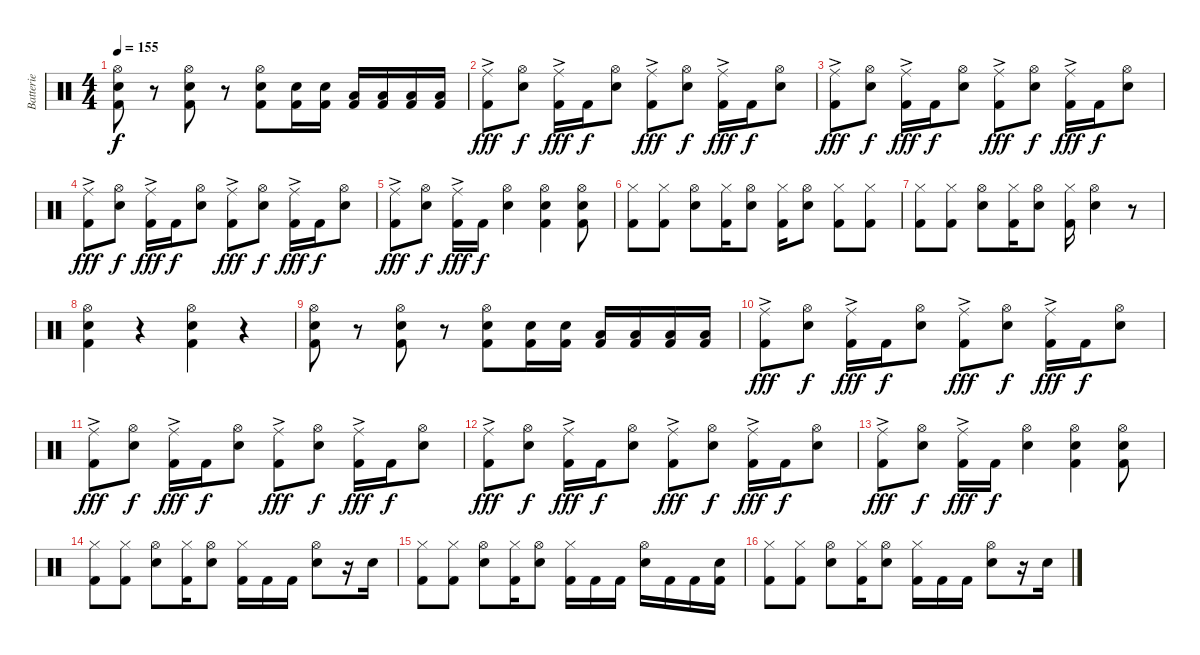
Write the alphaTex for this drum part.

\track ("Batterie" "Batterie") {instrument percussion}
\staff {score}
\articulation defaults
\ts (4 4)
\tempo 155
\clef neutral
\ks c
("Hi-Hat (open)" "Snare (hit) 2" "Kick (hit) 2").8{dy f} r.8 ("Hi-Hat (open)" "Snare (hit) 2" "Kick (hit) 2").8 r.8 ("Hi-Hat (open)" "Snare (hit) 2" "Kick (hit) 2").8 ("Snare (hit) 2" "Kick (hit) 2").16 ("Snare (hit) 2" "Kick (hit) 2").16 ("Low Tom (hit)" "Kick (hit) 2").16 ("Low Tom (hit)" "Kick (hit) 2").16 ("Low Floor Tom (hit)" "Kick (hit) 2").16 ("Low Floor Tom (hit)" "Kick (hit) 2").16 |
("Ride (middle)"{ac} "Kick (hit) 2").8{dy fff} ("Hi-Hat (open)" "Snare (hit) 2").8{dy f} ("Ride (middle)"{ac} "Kick (hit) 2").16{dy fff} "Kick (hit) 2".16{dy f} ("Hi-Hat (open)" "Snare (hit) 2").8 ("Ride (middle)"{ac} "Kick (hit) 2").8{dy fff} ("Hi-Hat (open)" "Snare (hit) 2").8{dy f} ("Ride (middle)"{ac} "Kick (hit) 2").16{dy fff} "Kick (hit) 2".16{dy f} ("Hi-Hat (open)" "Snare (hit) 2").8 |
("Ride (middle)"{ac} "Kick (hit) 2").8{dy fff} ("Hi-Hat (open)" "Snare (hit) 2").8{dy f} ("Ride (middle)"{ac} "Kick (hit) 2").16{dy fff} "Kick (hit) 2".16{dy f} ("Hi-Hat (open)" "Snare (hit) 2").8 ("Ride (middle)"{ac} "Kick (hit) 2").8{dy fff} ("Hi-Hat (open)" "Snare (hit) 2").8{dy f} ("Ride (middle)"{ac} "Kick (hit) 2").16{dy fff} "Kick (hit) 2".16{dy f} ("Hi-Hat (open)" "Snare (hit) 2").8 |
("Ride (middle)"{ac} "Kick (hit) 2").8{dy fff} ("Hi-Hat (open)" "Snare (hit) 2").8{dy f} ("Ride (middle)"{ac} "Kick (hit) 2").16{dy fff} "Kick (hit) 2".16{dy f} ("Hi-Hat (open)" "Snare (hit) 2").8 ("Ride (middle)"{ac} "Kick (hit) 2").8{dy fff} ("Hi-Hat (open)" "Snare (hit) 2").8{dy f} ("Ride (middle)"{ac} "Kick (hit) 2").16{dy fff} "Kick (hit) 2".16{dy f} ("Hi-Hat (open)" "Snare (hit) 2").8 |
("Ride (middle)"{ac} "Kick (hit) 2").8{dy fff} ("Hi-Hat (open)" "Snare (hit) 2").8{dy f} ("Ride (middle)"{ac} "Kick (hit) 2").16{dy fff} "Kick (hit) 2".16{dy f} ("Hi-Hat (open)" "Snare (hit) 2").4 ("Hi-Hat (open)" "Snare (hit) 2" "Kick (hit) 2").4 ("Hi-Hat (open)" "Snare (hit) 2" "Kick (hit) 2").8 |
("Hi-Hat (closed)" "Kick (hit) 2").8 ("Hi-Hat (closed)" "Kick (hit) 2").8 ("Hi-Hat (open)" "Snare (hit) 2").8 ("Hi-Hat (closed)" "Kick (hit) 2").16 ("Hi-Hat (open)" "Snare (hit) 2").8 ("Hi-Hat (closed)" "Kick (hit) 2").16 ("Hi-Hat (open)" "Snare (hit) 2").8 ("Hi-Hat (closed)" "Kick (hit) 2").8 ("Hi-Hat (closed)" "Kick (hit) 2").8 |
("Hi-Hat (closed)" "Kick (hit) 2").8 ("Hi-Hat (closed)" "Kick (hit) 2").8 ("Hi-Hat (open)" "Snare (hit) 2").8 ("Hi-Hat (closed)" "Kick (hit) 2").16 ("Hi-Hat (open)" "Snare (hit) 2").8 ("Hi-Hat (closed)" "Kick (hit) 2").16 ("Hi-Hat (open)" "Snare (hit) 2").4 r.8 |
("Hi-Hat (open)" "Snare (hit) 2" "Kick (hit) 2").4 r.4 ("Hi-Hat (open)" "Snare (hit) 2" "Kick (hit) 2").4 r.4 |
("Hi-Hat (open)" "Snare (hit) 2" "Kick (hit) 2").8 r.8 ("Hi-Hat (open)" "Snare (hit) 2" "Kick (hit) 2").8 r.8 ("Hi-Hat (open)" "Snare (hit) 2" "Kick (hit) 2").8 ("Snare (hit) 2" "Kick (hit) 2").16 ("Snare (hit) 2" "Kick (hit) 2").16 ("Low Tom (hit)" "Kick (hit) 2").16 ("Low Tom (hit)" "Kick (hit) 2").16 ("Low Floor Tom (hit)" "Kick (hit) 2").16 ("Low Floor Tom (hit)" "Kick (hit) 2").16 |
("Ride (middle)"{ac} "Kick (hit) 2").8{dy fff} ("Hi-Hat (open)" "Snare (hit) 2").8{dy f} ("Ride (middle)"{ac} "Kick (hit) 2").16{dy fff} "Kick (hit) 2".16{dy f} ("Hi-Hat (open)" "Snare (hit) 2").8 ("Ride (middle)"{ac} "Kick (hit) 2").8{dy fff} ("Hi-Hat (open)" "Snare (hit) 2").8{dy f} ("Ride (middle)"{ac} "Kick (hit) 2").16{dy fff} "Kick (hit) 2".16{dy f} ("Hi-Hat (open)" "Snare (hit) 2").8 |
("Ride (middle)"{ac} "Kick (hit) 2").8{dy fff} ("Hi-Hat (open)" "Snare (hit) 2").8{dy f} ("Ride (middle)"{ac} "Kick (hit) 2").16{dy fff} "Kick (hit) 2".16{dy f} ("Hi-Hat (open)" "Snare (hit) 2").8 ("Ride (middle)"{ac} "Kick (hit) 2").8{dy fff} ("Hi-Hat (open)" "Snare (hit) 2").8{dy f} ("Ride (middle)"{ac} "Kick (hit) 2").16{dy fff} "Kick (hit) 2".16{dy f} ("Hi-Hat (open)" "Snare (hit) 2").8 |
("Ride (middle)"{ac} "Kick (hit) 2").8{dy fff} ("Hi-Hat (open)" "Snare (hit) 2").8{dy f} ("Ride (middle)"{ac} "Kick (hit) 2").16{dy fff} "Kick (hit) 2".16{dy f} ("Hi-Hat (open)" "Snare (hit) 2").8 ("Ride (middle)"{ac} "Kick (hit) 2").8{dy fff} ("Hi-Hat (open)" "Snare (hit) 2").8{dy f} ("Ride (middle)"{ac} "Kick (hit) 2").16{dy fff} "Kick (hit) 2".16{dy f} ("Hi-Hat (open)" "Snare (hit) 2").8 |
("Ride (middle)"{ac} "Kick (hit) 2").8{dy fff} ("Hi-Hat (open)" "Snare (hit) 2").8{dy f} ("Ride (middle)"{ac} "Kick (hit) 2").16{dy fff} "Kick (hit) 2".16{dy f} ("Hi-Hat (open)" "Snare (hit) 2").4 ("Hi-Hat (open)" "Snare (hit) 2" "Kick (hit) 2").4 ("Hi-Hat (open)" "Snare (hit) 2" "Kick (hit) 2").8 |
("Hi-Hat (closed)" "Kick (hit) 2").8 ("Hi-Hat (closed)" "Kick (hit) 2").8 ("Hi-Hat (open)" "Snare (hit) 2").8 ("Hi-Hat (closed)" "Kick (hit) 2").16 ("Hi-Hat (open)" "Snare (hit) 2").8 ("Hi-Hat (closed)" "Kick (hit) 2").16 "Kick (hit) 2".16 "Kick (hit) 2".16 ("Hi-Hat (open)" "Snare (hit) 2").8 r.16 "Snare (hit) 2".16 |
("Hi-Hat (closed)" "Kick (hit) 2").8 ("Hi-Hat (closed)" "Kick (hit) 2").8 ("Hi-Hat (open)" "Snare (hit) 2").8 ("Hi-Hat (closed)" "Kick (hit) 2").16 ("Hi-Hat (open)" "Snare (hit) 2").8 ("Hi-Hat (closed)" "Kick (hit) 2").16 "Kick (hit) 2".16 "Kick (hit) 2".16 ("Hi-Hat (open)" "Snare (hit) 2").16 "Kick (hit) 2".16 "Kick (hit) 2".16 ("Snare (hit) 2" "Kick (hit) 2").16 |
("Hi-Hat (closed)" "Kick (hit) 2").8 ("Hi-Hat (closed)" "Kick (hit) 2").8 ("Hi-Hat (open)" "Snare (hit) 2").8 ("Hi-Hat (closed)" "Kick (hit) 2").16 ("Hi-Hat (open)" "Snare (hit) 2").8 ("Hi-Hat (closed)" "Kick (hit) 2").16 "Kick (hit) 2".16 "Kick (hit) 2".16 ("Hi-Hat (open)" "Snare (hit) 2").8 r.16 "Snare (hit) 2".16
